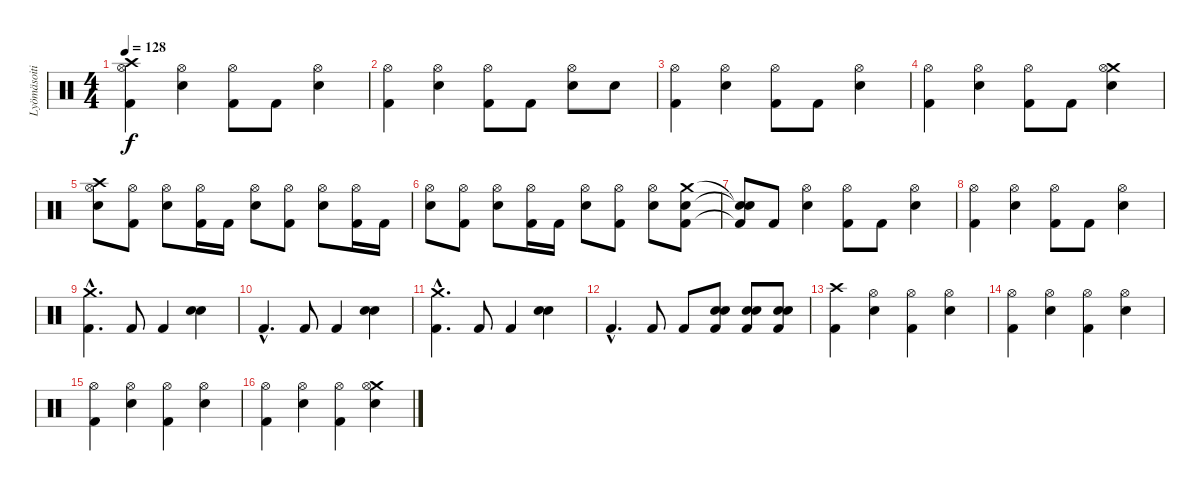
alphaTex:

\track ("Lyömäsoitin" "Lyömäsoiti") {instrument percussion}
\staff {score}
\articulation defaults
\ts (4 4)
\tempo 128
\clef neutral
\ks c
("Crash high (hit)" "Hi-Hat (open)" "Kick (hit) 2").4{dy f} ("Hi-Hat (open)" "Electric Snare (hit)").4 ("Hi-Hat (open)" "Kick (hit) 2").8 "Kick (hit) 2".8 ("Hi-Hat (open)" "Electric Snare (hit)").4 |
("Hi-Hat (open)" "Kick (hit) 2").4 ("Hi-Hat (open)" "Electric Snare (hit)").4 ("Hi-Hat (open)" "Kick (hit) 2").8 "Kick (hit) 2".8 ("Hi-Hat (open)" "Electric Snare (hit)").8 "Electric Snare (hit)".8 |
("Hi-Hat (open)" "Kick (hit) 2").4 ("Hi-Hat (open)" "Electric Snare (hit)").4 ("Hi-Hat (open)" "Kick (hit) 2").8 "Kick (hit) 2".8 ("Hi-Hat (open)" "Electric Snare (hit)").4 |
("Hi-Hat (open)" "Kick (hit) 2").4 ("Hi-Hat (open)" "Electric Snare (hit)").4 ("Hi-Hat (open)" "Kick (hit) 2").8 "Kick (hit) 2".8 ("Crash medium (hit)" "Hi-Hat (open)" "Electric Snare (hit)").4 |
("Crash high (hit)" "Hi-Hat (open)" "Electric Snare (hit)").8 ("Hi-Hat (open)" "Kick (hit) 2").8 ("Hi-Hat (open)" "Electric Snare (hit)").8 ("Hi-Hat (open)" "Kick (hit) 2").16 "Kick (hit) 2".16 ("Hi-Hat (open)" "Electric Snare (hit)").8 ("Hi-Hat (open)" "Kick (hit) 2").8 ("Hi-Hat (open)" "Electric Snare (hit)").8 ("Hi-Hat (open)" "Kick (hit) 2").16 "Kick (hit) 2".16 |
("Hi-Hat (open)" "Electric Snare (hit)").8 ("Hi-Hat (open)" "Kick (hit) 2").8 ("Hi-Hat (open)" "Electric Snare (hit)").8 ("Hi-Hat (open)" "Kick (hit) 2").16 "Kick (hit) 2".16 ("Hi-Hat (open)" "Electric Snare (hit)").8 ("Hi-Hat (open)" "Kick (hit) 2").8 ("Hi-Hat (open)" "Electric Snare (hit)").8 ("Crash medium (hit)" "Electric Snare (hit)" "Kick (hit) 2").8 |
("Snare (hit)"{t} "Snare (hit)"{t} "Kick (hit) 2"{t}).8 "Kick (hit) 2".8 ("Hi-Hat (open)" "Electric Snare (hit)").4 ("Hi-Hat (open)" "Kick (hit) 2").8 "Kick (hit) 2".8 ("Hi-Hat (open)" "Electric Snare (hit)").4 |
("Hi-Hat (open)" "Kick (hit) 2").4 ("Hi-Hat (open)" "Electric Snare (hit)").4 ("Hi-Hat (open)" "Kick (hit) 2").8 "Kick (hit) 2".8 ("Hi-Hat (open)" "Electric Snare (hit)").4 |
("Crash medium (hit)"{hac} "Kick (hit) 2"{hac}).4{d} "Kick (hit) 2".8 "Kick (hit) 2".4 ("Electric Snare (hit)" "Electric Snare (hit)").4 |
"Kick (hit) 2"{hac}.4{d} "Kick (hit) 2".8 "Kick (hit) 2".4 ("Electric Snare (hit)" "Electric Snare (hit)").4 |
("Crash medium (hit)"{hac} "Kick (hit) 2"{hac}).4{d} "Kick (hit) 2".8 "Kick (hit) 2".4 ("Electric Snare (hit)" "Electric Snare (hit)").4 |
"Kick (hit) 2"{hac}.4{d} "Kick (hit) 2".8 "Kick (hit) 2".8 ("Electric Snare (hit)" "Electric Snare (hit)" "Kick (hit) 2").8 ("Electric Snare (hit)" "Electric Snare (hit)" "Kick (hit) 2").8 ("Electric Snare (hit)" "Electric Snare (hit)" "Kick (hit) 2").8 |
("Crash high (hit)" "Kick (hit) 2").4 ("Hi-Hat (open)" "Electric Snare (hit)").4 ("Hi-Hat (open)" "Kick (hit) 2").4 ("Hi-Hat (open)" "Electric Snare (hit)").4 |
("Hi-Hat (open)" "Kick (hit) 2").4 ("Hi-Hat (open)" "Electric Snare (hit)").4 ("Hi-Hat (open)" "Kick (hit) 2").4 ("Hi-Hat (open)" "Electric Snare (hit)").4 |
("Hi-Hat (open)" "Kick (hit) 2").4 ("Hi-Hat (open)" "Electric Snare (hit)").4 ("Hi-Hat (open)" "Kick (hit) 2").4 ("Hi-Hat (open)" "Electric Snare (hit)").4 |
("Hi-Hat (open)" "Kick (hit) 2").4 ("Hi-Hat (open)" "Electric Snare (hit)").4 ("Hi-Hat (open)" "Kick (hit) 2").4 ("Crash medium (hit)" "Hi-Hat (open)" "Electric Snare (hit)").4
